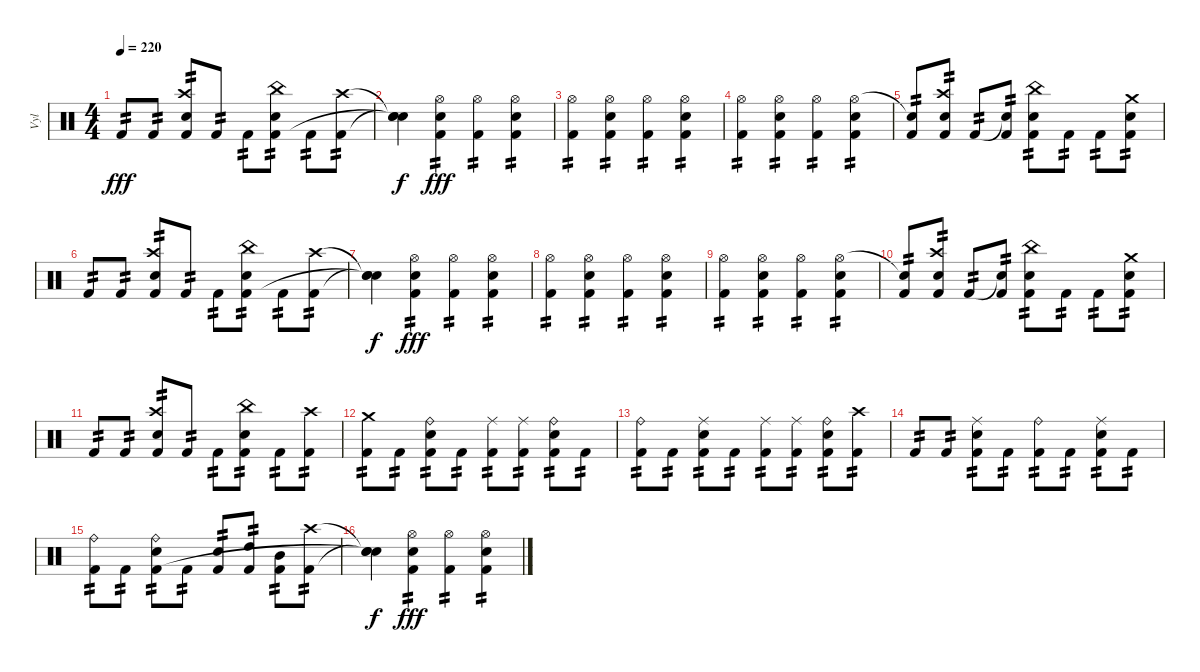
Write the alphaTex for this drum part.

\track ("Vyl" "Vyl") {instrument percussion}
\staff {score}
\articulation defaults
\ts (4 4)
\tempo 220
\clef neutral
\ks c "Kick (hit) 2".8{tp 2 dy fff} "Kick (hit) 2".8{tp 2}
("Crash high (hit)" "Snare (hit) 2" "Kick (hit) 2").8{tp 2} "Kick (hit) 2".8{tp 2} "Kick (hit) 2".8{tp 2} ("China (hit)" "Snare (hit) 2" "Kick (hit) 2").8{tp 2} "Kick (hit) 2".8{tp 2} ("Crash high (hit)" "Kick (hit) 2").8{tp 2} |
("Snare (hit)"{t} "Snare (hit)"{t} "Snare (hit)"{t}).4{dy f} ("Hi-Hat (open)" "Snare (hit) 2" "Kick (hit) 2").4{tp 2 dy fff} ("Hi-Hat (open)" "Kick (hit) 2").4{tp 2} ("Hi-Hat (open)" "Snare (hit) 2" "Kick (hit) 2").4{tp 2} |
("Hi-Hat (open)" "Kick (hit) 2").4{tp 2} ("Hi-Hat (open)" "Snare (hit) 2" "Kick (hit) 2").4{tp 2} ("Hi-Hat (open)" "Kick (hit) 2").4{tp 2} ("Hi-Hat (open)" "Snare (hit) 2" "Kick (hit) 2").4{tp 2} |
("Hi-Hat (open)" "Kick (hit) 2").4{tp 2} ("Hi-Hat (open)" "Snare (hit) 2" "Kick (hit) 2").4{tp 2} ("Hi-Hat (open)" "Kick (hit) 2").4{tp 2} ("Hi-Hat (open)" "Snare (hit) 2" "Kick (hit) 2").4{tp 2} |
("Snare (hit)"{t} "Kick (hit) 2").8{tp 2} ("Crash high (hit)" "Snare (hit) 2" "Kick (hit) 2").8{tp 2} "Kick (hit) 2".8{tp 2} ("Snare (hit)"{t} "Kick (hit) 2").8{tp 2} ("China (hit)" "Snare (hit) 2" "Kick (hit) 2").8{tp 2} "Kick (hit) 2".8{tp 2} "Kick (hit) 2".8{tp 2} ("Crash medium (hit)" "Snare (hit) 2" "Kick (hit) 2").8{tp 2} |
"Kick (hit) 2".8{tp 2} "Kick (hit) 2".8{tp 2} ("Crash high (hit)" "Snare (hit) 2" "Kick (hit) 2").8{tp 2} "Kick (hit) 2".8{tp 2} "Kick (hit) 2".8{tp 2} ("China (hit)" "Snare (hit) 2" "Kick (hit) 2").8{tp 2} "Kick (hit) 2".8{tp 2} ("Crash high (hit)" "Kick (hit) 2").8{tp 2} |
("Snare (hit)"{t} "Snare (hit)"{t} "Snare (hit)"{t}).4{dy f} ("Hi-Hat (open)" "Snare (hit) 2" "Kick (hit) 2").4{tp 2 dy fff} ("Hi-Hat (open)" "Kick (hit) 2").4{tp 2} ("Hi-Hat (open)" "Snare (hit) 2" "Kick (hit) 2").4{tp 2} |
("Hi-Hat (open)" "Kick (hit) 2").4{tp 2} ("Hi-Hat (open)" "Snare (hit) 2" "Kick (hit) 2").4{tp 2} ("Hi-Hat (open)" "Kick (hit) 2").4{tp 2} ("Hi-Hat (open)" "Snare (hit) 2" "Kick (hit) 2").4{tp 2} |
("Hi-Hat (open)" "Kick (hit) 2").4{tp 2} ("Hi-Hat (open)" "Snare (hit) 2" "Kick (hit) 2").4{tp 2} ("Hi-Hat (open)" "Kick (hit) 2").4{tp 2} ("Hi-Hat (open)" "Snare (hit) 2" "Kick (hit) 2").4{tp 2} |
("Snare (hit)"{t} "Kick (hit) 2").8{tp 2} ("Crash high (hit)" "Snare (hit) 2" "Kick (hit) 2").8{tp 2} "Kick (hit) 2".8{tp 2} ("Snare (hit)"{t} "Kick (hit) 2").8{tp 2} ("China (hit)" "Snare (hit) 2" "Kick (hit) 2").8{tp 2} "Kick (hit) 2".8{tp 2} "Kick (hit) 2".8{tp 2} ("Crash medium (hit)" "Snare (hit) 2" "Kick (hit) 2").8{tp 2} |
"Kick (hit) 2".8{tp 2} "Kick (hit) 2".8{tp 2} ("Crash high (hit)" "Snare (hit) 2" "Kick (hit) 2").8{tp 2} "Kick (hit) 2".8{tp 2} "Kick (hit) 2".8{tp 2} ("China (hit)" "Snare (hit) 2" "Kick (hit) 2").8{tp 2} "Kick (hit) 2".8{tp 2} ("Crash high (hit)" "Kick (hit) 2").8{tp 2} |
("Crash medium (hit)" "Kick (hit) 2").8{tp 2} "Kick (hit) 2".8{tp 2} ("Ride (bell)" "Snare (hit) 2" "Kick (hit) 2").8{tp 2} "Kick (hit) 2".8{tp 2} ("Ride (middle)" "Kick (hit) 2").8{tp 2} ("Ride (middle)" "Kick (hit) 2").8{tp 2} ("Ride (bell)" "Snare (hit) 2" "Kick (hit) 2").8{tp 2} "Kick (hit) 2".8{tp 2} |
("Ride (bell)" "Kick (hit) 2").8{tp 2} "Kick (hit) 2".8{tp 2} ("Ride (middle)" "Snare (hit) 2" "Kick (hit) 2").8{tp 2} "Kick (hit) 2".8{tp 2} ("Ride (middle)" "Kick (hit) 2").8{tp 2} ("Ride (middle)" "Kick (hit) 2").8{tp 2} ("Ride (bell)" "Snare (hit) 2" "Kick (hit) 2").8{tp 2} ("Crash high (hit)" "Kick (hit) 2").8{tp 2} |
"Kick (hit) 2".8{tp 2} "Kick (hit) 2".8{tp 2} ("Ride (middle)" "Snare (hit) 2" "Kick (hit) 2").8{tp 2} "Kick (hit) 2".8{tp 2} ("Ride (bell)" "Kick (hit) 2").8{tp 2} "Kick (hit) 2".8{tp 2} ("Ride (middle)" "Snare (hit) 2" "Kick (hit) 2").8{tp 2} "Kick (hit) 2".8{tp 2} |
("Ride (bell)" "Kick (hit) 2").8{tp 2} "Kick (hit) 2".8{tp 2} ("Ride (bell)" "Snare (hit) 2" "Kick (hit) 2").8{tp 2} "Kick (hit) 2".8{tp 2} ("Snare (hit) 2" "Kick (hit) 2").8{tp 2} ("High Tom (hit)" "Kick (hit) 2").8{tp 2} ("Mid Tom (hit)" "Kick (hit) 2").8{tp 2} ("Crash high (hit)" "Kick (hit) 2").8{tp 2} |
("Snare (hit)"{t} "Snare (hit)"{t} "Snare (hit)"{t}).4{dy f} ("Hi-Hat (open)" "Snare (hit) 2" "Kick (hit) 2").4{tp 2 dy fff} ("Hi-Hat (open)" "Kick (hit) 2").4{tp 2} ("Hi-Hat (open)" "Snare (hit) 2" "Kick (hit) 2").4{tp 2}
